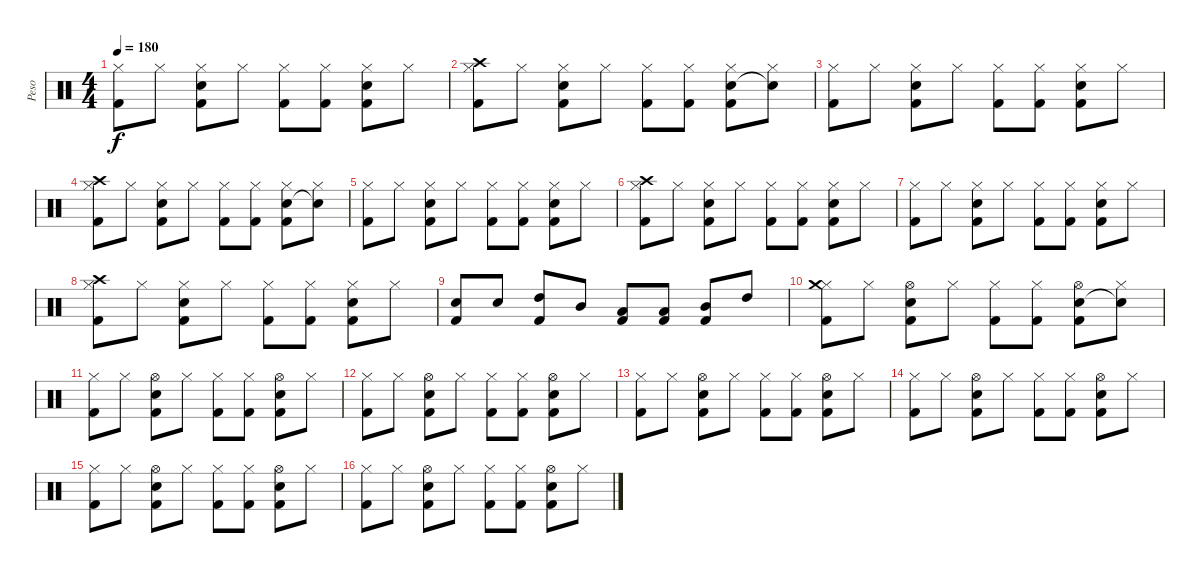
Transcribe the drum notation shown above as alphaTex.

\track ("Peso" "Peso") {instrument percussion}
\staff {score}
\articulation defaults
\ts (4 4)
\tempo 180
\clef neutral
\ks c
("Hi-Hat (closed)" "Kick (hit) 2").8{dy f} "Hi-Hat (closed)".8 ("Hi-Hat (closed)" "Electric Snare (hit)" "Kick (hit) 2").8 "Hi-Hat (closed)".8 ("Hi-Hat (closed)" "Kick (hit) 2").8 ("Hi-Hat (closed)" "Kick (hit) 2").8 ("Hi-Hat (closed)" "Electric Snare (hit)" "Kick (hit) 2").8 "Hi-Hat (closed)".8 |
("Hi-Hat (closed)" "Crash high (hit)" "Kick (hit) 2").8 "Hi-Hat (closed)".8 ("Hi-Hat (closed)" "Electric Snare (hit)" "Kick (hit) 2").8 "Hi-Hat (closed)".8 ("Hi-Hat (closed)" "Kick (hit) 2").8 ("Hi-Hat (closed)" "Kick (hit) 2").8 ("Hi-Hat (closed)" "Electric Snare (hit)" "Kick (hit) 2").8 ("Hi-Hat (closed)" "Snare (hit)"{t}).8 |
("Hi-Hat (closed)" "Kick (hit) 2").8 "Hi-Hat (closed)".8 ("Hi-Hat (closed)" "Electric Snare (hit)" "Kick (hit) 2").8 "Hi-Hat (closed)".8 ("Hi-Hat (closed)" "Kick (hit) 2").8 ("Hi-Hat (closed)" "Kick (hit) 2").8 ("Hi-Hat (closed)" "Electric Snare (hit)" "Kick (hit) 2").8 "Hi-Hat (closed)".8 |
("Hi-Hat (closed)" "Crash high (hit)" "Kick (hit) 2").8 "Hi-Hat (closed)".8 ("Hi-Hat (closed)" "Electric Snare (hit)" "Kick (hit) 2").8 "Hi-Hat (closed)".8 ("Hi-Hat (closed)" "Kick (hit) 2").8 ("Hi-Hat (closed)" "Kick (hit) 2").8 ("Hi-Hat (closed)" "Electric Snare (hit)" "Kick (hit) 2").8 ("Hi-Hat (closed)" "Snare (hit)"{t}).8 |
("Hi-Hat (closed)" "Kick (hit) 2").8 "Hi-Hat (closed)".8 ("Hi-Hat (closed)" "Electric Snare (hit)" "Kick (hit) 2").8 "Hi-Hat (closed)".8 ("Hi-Hat (closed)" "Kick (hit) 2").8 ("Hi-Hat (closed)" "Kick (hit) 2").8 ("Hi-Hat (closed)" "Electric Snare (hit)" "Kick (hit) 2").8 "Hi-Hat (closed)".8 |
("Hi-Hat (closed)" "Crash high (hit)" "Kick (hit) 2").8 "Hi-Hat (closed)".8 ("Hi-Hat (closed)" "Electric Snare (hit)" "Kick (hit) 2").8 "Hi-Hat (closed)".8 ("Hi-Hat (closed)" "Kick (hit) 2").8 ("Hi-Hat (closed)" "Kick (hit) 2").8 ("Hi-Hat (closed)" "Electric Snare (hit)" "Kick (hit) 2").8 "Hi-Hat (closed)".8 |
("Hi-Hat (closed)" "Kick (hit) 2").8 "Hi-Hat (closed)".8 ("Hi-Hat (closed)" "Electric Snare (hit)" "Kick (hit) 2").8 "Hi-Hat (closed)".8 ("Hi-Hat (closed)" "Kick (hit) 2").8 ("Hi-Hat (closed)" "Kick (hit) 2").8 ("Hi-Hat (closed)" "Electric Snare (hit)" "Kick (hit) 2").8 "Hi-Hat (closed)".8 |
("Hi-Hat (closed)" "Crash high (hit)" "Kick (hit) 2").8 "Hi-Hat (closed)".8 ("Hi-Hat (closed)" "Electric Snare (hit)" "Kick (hit) 2").8 "Hi-Hat (closed)".8 ("Hi-Hat (closed)" "Kick (hit) 2").8 ("Hi-Hat (closed)" "Kick (hit) 2").8 ("Hi-Hat (closed)" "Electric Snare (hit)" "Kick (hit) 2").8 "Hi-Hat (closed)".8 |
("Electric Snare (hit)" "Kick (hit) 2").8 "Electric Snare (hit)".8 ("High Tom (hit)" "Kick (hit) 2").8 "Mid Tom (hit)".8 ("Low Tom (hit)" "Kick (hit) 2").8 ("Low Tom (hit)" "Kick (hit) 2").8 ("Mid Tom (hit)" "Kick (hit) 2").8 "High Tom (hit)".8 |
("Hi-Hat (closed)" "Crash medium (hit)" "Kick (hit) 2").8 "Hi-Hat (closed)".8 ("Hi-Hat (open)" "Electric Snare (hit)" "Kick (hit) 2").8 "Hi-Hat (closed)".8 ("Hi-Hat (closed)" "Kick (hit) 2").8 ("Hi-Hat (closed)" "Kick (hit) 2").8 ("Hi-Hat (open)" "Electric Snare (hit)" "Kick (hit) 2").8 ("Hi-Hat (closed)" "Snare (hit)"{t}).8 |
("Hi-Hat (closed)" "Kick (hit) 2").8 "Hi-Hat (closed)".8 ("Hi-Hat (open)" "Electric Snare (hit)" "Kick (hit) 2").8 "Hi-Hat (closed)".8 ("Hi-Hat (closed)" "Kick (hit) 2").8 ("Hi-Hat (closed)" "Kick (hit) 2").8 ("Hi-Hat (open)" "Electric Snare (hit)" "Kick (hit) 2").8 "Hi-Hat (closed)".8 |
("Hi-Hat (closed)" "Kick (hit) 2").8 "Hi-Hat (closed)".8 ("Hi-Hat (open)" "Electric Snare (hit)" "Kick (hit) 2").8 "Hi-Hat (closed)".8 ("Hi-Hat (closed)" "Kick (hit) 2").8 ("Hi-Hat (closed)" "Kick (hit) 2").8 ("Hi-Hat (open)" "Electric Snare (hit)" "Kick (hit) 2").8 "Hi-Hat (closed)".8 |
("Hi-Hat (closed)" "Kick (hit) 2").8 "Hi-Hat (closed)".8 ("Hi-Hat (open)" "Electric Snare (hit)" "Kick (hit) 2").8 "Hi-Hat (closed)".8 ("Hi-Hat (closed)" "Kick (hit) 2").8 ("Hi-Hat (closed)" "Kick (hit) 2").8 ("Hi-Hat (open)" "Electric Snare (hit)" "Kick (hit) 2").8 "Hi-Hat (closed)".8 |
("Hi-Hat (closed)" "Kick (hit) 2").8 "Hi-Hat (closed)".8 ("Hi-Hat (open)" "Electric Snare (hit)" "Kick (hit) 2").8 "Hi-Hat (closed)".8 ("Hi-Hat (closed)" "Kick (hit) 2").8 ("Hi-Hat (closed)" "Kick (hit) 2").8 ("Hi-Hat (open)" "Electric Snare (hit)" "Kick (hit) 2").8 "Hi-Hat (closed)".8 |
("Hi-Hat (closed)" "Kick (hit) 2").8 "Hi-Hat (closed)".8 ("Hi-Hat (open)" "Electric Snare (hit)" "Kick (hit) 2").8 "Hi-Hat (closed)".8 ("Hi-Hat (closed)" "Kick (hit) 2").8 ("Hi-Hat (closed)" "Kick (hit) 2").8 ("Hi-Hat (open)" "Electric Snare (hit)" "Kick (hit) 2").8 "Hi-Hat (closed)".8 |
("Hi-Hat (closed)" "Kick (hit) 2").8 "Hi-Hat (closed)".8 ("Hi-Hat (open)" "Electric Snare (hit)" "Kick (hit) 2").8 "Hi-Hat (closed)".8 ("Hi-Hat (closed)" "Kick (hit) 2").8 ("Hi-Hat (closed)" "Kick (hit) 2").8 ("Hi-Hat (open)" "Electric Snare (hit)" "Kick (hit) 2").8 "Hi-Hat (closed)".8
